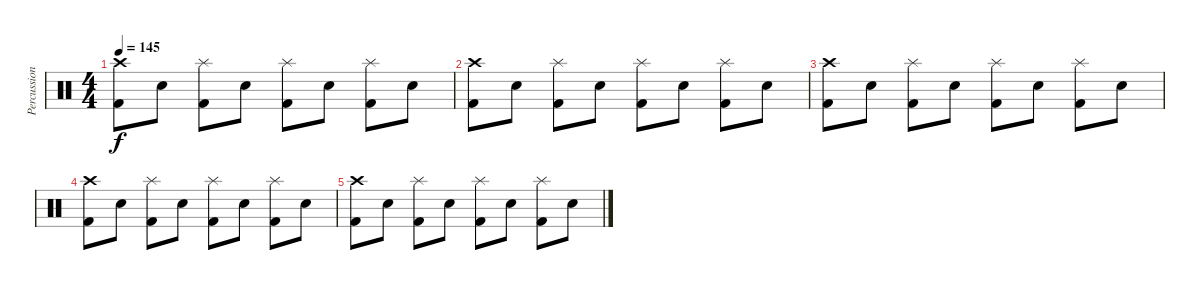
\track ("Percussion" "Percussion") {instrument percussion}
\staff {score}
\articulation defaults
\ts (4 4)
\tempo 145
\clef neutral
\ks c
("Crash high (hit)" "Kick (hit) 2").8{dy f} "Electric Snare (hit)".8 ("Splash (hit)" "Kick (hit) 2").8 "Electric Snare (hit)".8 ("Splash (hit)" "Kick (hit) 2").8 "Electric Snare (hit)".8 ("Splash (hit)" "Kick (hit) 2").8 "Electric Snare (hit)".8 |
("Crash high (hit)" "Kick (hit) 2").8 "Electric Snare (hit)".8 ("Splash (hit)" "Kick (hit) 2").8 "Electric Snare (hit)".8 ("Splash (hit)" "Kick (hit) 2").8 "Electric Snare (hit)".8 ("Splash (hit)" "Kick (hit) 2").8 "Electric Snare (hit)".8 |
("Crash high (hit)" "Kick (hit) 2").8 "Electric Snare (hit)".8 ("Splash (hit)" "Kick (hit) 2").8 "Electric Snare (hit)".8 ("Splash (hit)" "Kick (hit) 2").8 "Electric Snare (hit)".8 ("Splash (hit)" "Kick (hit) 2").8 "Electric Snare (hit)".8 |
("Crash high (hit)" "Kick (hit) 2").8 "Electric Snare (hit)".8 ("Splash (hit)" "Kick (hit) 2").8 "Electric Snare (hit)".8 ("Splash (hit)" "Kick (hit) 2").8 "Electric Snare (hit)".8 ("Splash (hit)" "Kick (hit) 2").8 "Electric Snare (hit)".8 |
("Crash high (hit)" "Kick (hit) 2").8 "Electric Snare (hit)".8 ("Splash (hit)" "Kick (hit) 2").8 "Electric Snare (hit)".8 ("Splash (hit)" "Kick (hit) 2").8 "Electric Snare (hit)".8 ("Splash (hit)" "Kick (hit) 2").8 "Electric Snare (hit)".8
